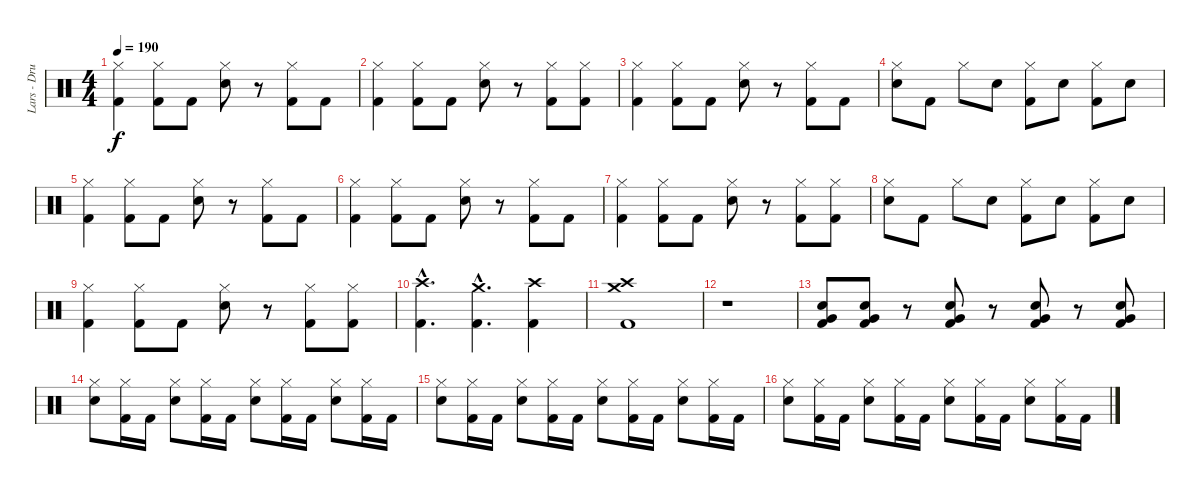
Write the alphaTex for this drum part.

\track ("Lars - Drums" "Lars - Dru") {instrument percussion}
\staff {score}
\articulation defaults
\ts (4 4)
\tempo 190
\clef neutral
\ks c
("Kick (hit) 2" "Hi-Hat (closed)").4{dy f} ("Kick (hit) 2" "Hi-Hat (closed)").8 "Kick (hit) 2".8 ("Snare (hit) 2" "Hi-Hat (closed)").8 r.8 ("Kick (hit) 2" "Hi-Hat (closed)").8 "Kick (hit) 2".8 |
("Kick (hit) 2" "Hi-Hat (closed)").4 ("Kick (hit) 2" "Hi-Hat (closed)").8 "Kick (hit) 2".8 ("Snare (hit) 2" "Hi-Hat (closed)").8 r.8 ("Kick (hit) 2" "Hi-Hat (closed)").8 ("Kick (hit) 2" "Hi-Hat (closed)").8 |
("Kick (hit) 2" "Hi-Hat (closed)").4 ("Kick (hit) 2" "Hi-Hat (closed)").8 "Kick (hit) 2".8 ("Snare (hit) 2" "Hi-Hat (closed)").8 r.8 ("Kick (hit) 2" "Hi-Hat (closed)").8 "Kick (hit) 2".8 |
("Snare (hit) 2" "Hi-Hat (closed)").8 "Kick (hit) 2".8 "Hi-Hat (closed)".8 "Snare (hit) 2".8 ("Kick (hit) 2" "Hi-Hat (closed)").8 "Snare (hit) 2".8 ("Kick (hit) 2" "Hi-Hat (closed)").8 "Snare (hit) 2".8 |
("Kick (hit) 2" "Hi-Hat (closed)").4 ("Kick (hit) 2" "Hi-Hat (closed)").8 "Kick (hit) 2".8 ("Snare (hit) 2" "Hi-Hat (closed)").8 r.8 ("Kick (hit) 2" "Hi-Hat (closed)").8 "Kick (hit) 2".8 |
("Kick (hit) 2" "Hi-Hat (closed)").4 ("Kick (hit) 2" "Hi-Hat (closed)").8 "Kick (hit) 2".8 ("Snare (hit) 2" "Hi-Hat (closed)").8 r.8 ("Kick (hit) 2" "Hi-Hat (closed)").8 "Kick (hit) 2".8 |
("Kick (hit) 2" "Hi-Hat (closed)").4 ("Kick (hit) 2" "Hi-Hat (closed)").8 "Kick (hit) 2".8 ("Snare (hit) 2" "Hi-Hat (closed)").8 r.8 ("Kick (hit) 2" "Hi-Hat (closed)").8 ("Kick (hit) 2" "Hi-Hat (closed)").8 |
("Snare (hit) 2" "Hi-Hat (closed)").8 "Kick (hit) 2".8 "Hi-Hat (closed)".8 "Snare (hit) 2".8 ("Kick (hit) 2" "Hi-Hat (closed)").8 "Snare (hit) 2".8 ("Kick (hit) 2" "Hi-Hat (closed)").8 "Snare (hit) 2".8 |
("Kick (hit) 2" "Hi-Hat (closed)").4 ("Kick (hit) 2" "Hi-Hat (closed)").8 "Kick (hit) 2".8 ("Snare (hit) 2" "Hi-Hat (closed)").8 r.8 ("Kick (hit) 2" "Hi-Hat (closed)").8 ("Kick (hit) 2" "Hi-Hat (closed)").8 |
("Kick (hit) 2"{hac} "Crash high (hit)"{hac}).4{d} ("Kick (hit) 2"{hac} "Crash medium (hit)"{hac}).4{d} ("Kick (hit) 2" "Crash high (hit)").4 |
("Kick (hit) 2" "Crash medium (hit)" "Crash high (hit)").1 |
r.1 |
("Kick (hit) 2" "Very Low Tom (hit)" "Snare (hit) 2").8 ("Kick (hit) 2" "Very Low Tom (hit)" "Snare (hit) 2").8 r.8 ("Kick (hit) 2" "Very Low Tom (hit)" "Snare (hit) 2").8 r.8 ("Kick (hit) 2" "Very Low Tom (hit)" "Snare (hit) 2").8 r.8 ("Kick (hit) 2" "Very Low Tom (hit)" "Snare (hit) 2").8 |
("Snare (hit) 2" "Hi-Hat (closed)").8 ("Kick (hit) 2" "Hi-Hat (closed)").16 "Kick (hit) 2".16 ("Snare (hit) 2" "Hi-Hat (closed)").8 ("Kick (hit) 2" "Hi-Hat (closed)").16 "Kick (hit) 2".16 ("Snare (hit) 2" "Hi-Hat (closed)").8 ("Kick (hit) 2" "Hi-Hat (closed)").16 "Kick (hit) 2".16 ("Snare (hit) 2" "Hi-Hat (closed)").8 ("Kick (hit) 2" "Hi-Hat (closed)").16 "Kick (hit) 2".16 |
("Snare (hit) 2" "Hi-Hat (closed)").8 ("Kick (hit) 2" "Hi-Hat (closed)").16 "Kick (hit) 2".16 ("Snare (hit) 2" "Hi-Hat (closed)").8 ("Kick (hit) 2" "Hi-Hat (closed)").16 "Kick (hit) 2".16 ("Snare (hit) 2" "Hi-Hat (closed)").8 ("Kick (hit) 2" "Hi-Hat (closed)").16 "Kick (hit) 2".16 ("Snare (hit) 2" "Hi-Hat (closed)").8 ("Kick (hit) 2" "Hi-Hat (closed)").16 "Kick (hit) 2".16 |
("Snare (hit) 2" "Hi-Hat (closed)").8 ("Kick (hit) 2" "Hi-Hat (closed)").16 "Kick (hit) 2".16 ("Snare (hit) 2" "Hi-Hat (closed)").8 ("Kick (hit) 2" "Hi-Hat (closed)").16 "Kick (hit) 2".16 ("Snare (hit) 2" "Hi-Hat (closed)").8 ("Kick (hit) 2" "Hi-Hat (closed)").16 "Kick (hit) 2".16 ("Snare (hit) 2" "Hi-Hat (closed)").8 ("Kick (hit) 2" "Hi-Hat (closed)").16 "Kick (hit) 2".16
